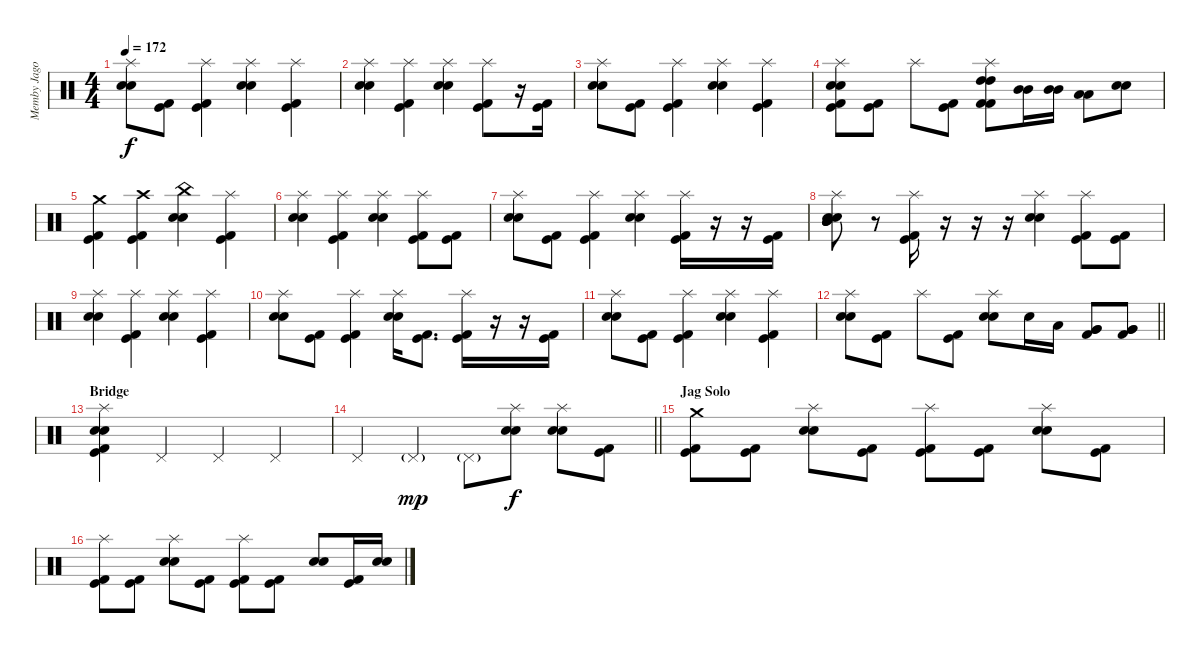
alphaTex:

\track ("Memby Jago" "Memby Jago") {instrument percussion}
\staff {score}
\articulation defaults
\ts (4 4)
\tempo 172
\clef neutral
\ks c
("Splash (hit)" "Electric Snare (hit)" "Snare (hit) 2").8{dy f} ("Kick (hit)" "Kick (hit) 2").8 ("Splash (hit)" "Kick (hit)" "Kick (hit) 2").4 ("Splash (hit)" "Electric Snare (hit)" "Snare (hit) 2").4 ("Splash (hit)" "Kick (hit)" "Kick (hit) 2").4 |
("Splash (hit)" "Electric Snare (hit)" "Snare (hit) 2").4 ("Splash (hit)" "Kick (hit)" "Kick (hit) 2").4 ("Splash (hit)" "Electric Snare (hit)" "Snare (hit) 2").4 ("Splash (hit)" "Kick (hit)" "Kick (hit) 2").8 r.16 ("Kick (hit)" "Kick (hit) 2").16 |
("Splash (hit)" "Electric Snare (hit)" "Snare (hit) 2").8 ("Kick (hit)" "Kick (hit) 2").8 ("Splash (hit)" "Kick (hit)" "Kick (hit) 2").4 ("Splash (hit)" "Electric Snare (hit)" "Snare (hit) 2").4 ("Splash (hit)" "Kick (hit)" "Kick (hit) 2").4 |
("Splash (hit)" "Electric Snare (hit)" "Snare (hit) 2" "Kick (hit)" "Kick (hit) 2").8 ("Kick (hit)" "Kick (hit) 2").8 "Splash (hit)".8 ("Kick (hit)" "Kick (hit) 2").8 ("Splash (hit)" "High Tom (hit)" "High Tom (hit)" "Kick (hit) 2" "Kick (hit) 2").8 ("Mid Tom (hit)" "Mid Tom (hit)").16 ("Mid Tom (hit)" "Mid Tom (hit)").16 ("Low Tom (hit)" "Low Tom (hit)").8 ("Electric Snare (hit)" "Snare (hit) 2").8 |
("Crash medium (hit)" "Kick (hit)" "Kick (hit) 2").4 ("Crash high (hit)" "Kick (hit)" "Kick (hit) 2").4 ("China (hit)" "Electric Snare (hit)" "Snare (hit) 2").4 ("Splash (hit)" "Kick (hit)" "Kick (hit) 2").4 |
("Splash (hit)" "Electric Snare (hit)" "Snare (hit) 2").4 ("Splash (hit)" "Kick (hit)" "Kick (hit) 2").4 ("Splash (hit)" "Electric Snare (hit)" "Snare (hit) 2").4 ("Splash (hit)" "Kick (hit)" "Kick (hit) 2").8 ("Kick (hit)" "Kick (hit) 2").8 |
("Splash (hit)" "Electric Snare (hit)" "Snare (hit) 2").8 ("Kick (hit)" "Kick (hit) 2").8 ("Splash (hit)" "Kick (hit)" "Kick (hit) 2").4 ("Splash (hit)" "Electric Snare (hit)" "Snare (hit) 2").4 ("Splash (hit)" "Kick (hit)" "Kick (hit) 2").16 r.16 r.16 ("Kick (hit)" "Kick (hit) 2").16 |
("Mid Tom (hit)" "Splash (hit)" "Electric Snare (hit)" "Snare (hit) 2" "Mid Tom (hit)" "Mid Tom (hit)").8 r.8 ("Splash (hit)" "Kick (hit)" "Kick (hit) 2").16 r.16 r.16 r.16 ("Splash (hit)" "Electric Snare (hit)" "Snare (hit) 2").4 ("Splash (hit)" "Kick (hit)" "Kick (hit) 2").8 ("Kick (hit)" "Kick (hit) 2").8 |
("Splash (hit)" "Electric Snare (hit)" "Snare (hit) 2").4 ("Splash (hit)" "Kick (hit)" "Kick (hit) 2").4 ("Splash (hit)" "Electric Snare (hit)" "Snare (hit) 2").4 ("Splash (hit)" "Kick (hit)" "Kick (hit) 2").4 |
("Splash (hit)" "Electric Snare (hit)" "Snare (hit) 2").8 ("Kick (hit)" "Kick (hit) 2").8 ("Splash (hit)" "Kick (hit)" "Kick (hit) 2").4 ("Splash (hit)" "Electric Snare (hit)" "Snare (hit) 2").16 ("Kick (hit)" "Kick (hit) 2").8{d} ("Splash (hit)" "Kick (hit)" "Kick (hit) 2").16 r.16 r.16 ("Kick (hit)" "Kick (hit) 2").16 |
("Splash (hit)" "Electric Snare (hit)" "Snare (hit) 2").8 ("Kick (hit)" "Kick (hit) 2").8 ("Splash (hit)" "Kick (hit)" "Kick (hit) 2").4 ("Splash (hit)" "Electric Snare (hit)" "Snare (hit) 2").4 ("Splash (hit)" "Kick (hit)" "Kick (hit) 2").4 |
\barLineRight lightlight
("Splash (hit)" "Electric Snare (hit)" "Snare (hit) 2").8 ("Kick (hit)" "Kick (hit) 2").8 "Splash (hit)".8 ("Kick (hit)" "Kick (hit) 2").8 ("Splash (hit)" "Electric Snare (hit)" "Snare (hit) 2").8 "Snare (hit) 2".16 "Low Tom (hit)".16 ("Very Low Tom (hit)" "Very Low Tom (hit)" "Kick (hit) 2").8 ("Very Low Tom (hit)" "Very Low Tom (hit)" "Kick (hit) 2").8 |
\section ("" "Bridge")
("Splash (hit)" "Electric Snare (hit)" "Snare (hit) 2" "Kick (hit)" "Kick (hit) 2").4 "Pedal Hi-Hat (hit)".4 "Pedal Hi-Hat (hit)".4 "Pedal Hi-Hat (hit)".4 |
\barLineRight lightlight "Pedal Hi-Hat (hit)".4 "Pedal Hi-Hat (hit)"{g}.4{dy mp} "Pedal Hi-Hat (hit)"{g}.8
("Splash (hit)" "Electric Snare (hit)" "Snare (hit) 2").8{dy f} ("Splash (hit)" "Electric Snare (hit)" "Snare (hit) 2").8 ("Kick (hit)" "Kick (hit) 2").8 |
\section ("" "Jag Solo")
("Crash medium (hit)" "Kick (hit)" "Kick (hit) 2").8 ("Kick (hit)" "Kick (hit) 2").8 ("Splash (hit)" "Electric Snare (hit)" "Snare (hit) 2").8 ("Kick (hit)" "Kick (hit) 2").8 ("Splash (hit)" "Kick (hit)" "Kick (hit) 2").8 ("Kick (hit)" "Kick (hit) 2").8 ("Splash (hit)" "Electric Snare (hit)" "Snare (hit) 2").8 ("Kick (hit)" "Kick (hit) 2").8 |
("Splash (hit)" "Kick (hit)" "Kick (hit) 2").8 ("Kick (hit)" "Kick (hit) 2").8 ("Splash (hit)" "Electric Snare (hit)" "Snare (hit) 2").8 ("Kick (hit)" "Kick (hit) 2").8 ("Splash (hit)" "Kick (hit)" "Kick (hit) 2").8 ("Kick (hit)" "Kick (hit) 2").8 ("Electric Snare (hit)" "Snare (hit) 2").8 ("Kick (hit)" "Kick (hit) 2").16 ("Electric Snare (hit)" "Snare (hit) 2").16
